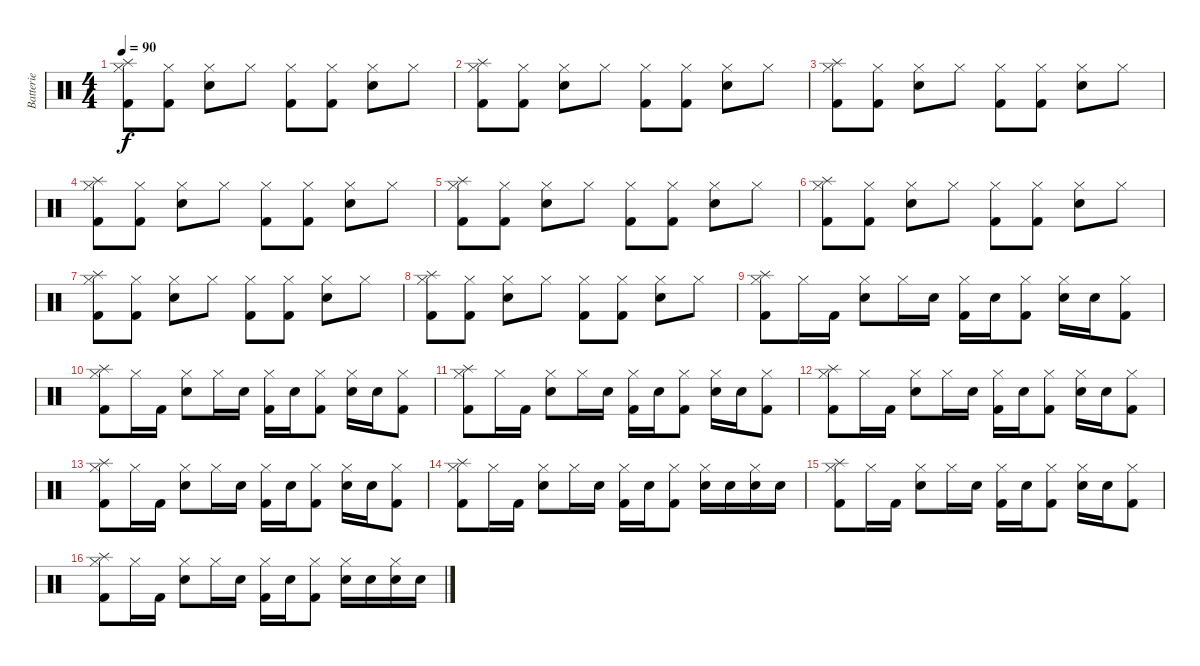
\track ("Batterie" "Batterie") {instrument percussion}
\staff {score}
\articulation defaults
\ts (4 4)
\tempo 90
\clef neutral
\ks c
("Splash (hit)" "Hi-Hat (closed)" "Kick (hit) 2").8{dy f} ("Hi-Hat (closed)" "Kick (hit) 2").8 ("Hi-Hat (closed)" "Snare (hit) 2").8 "Hi-Hat (closed)".8 ("Hi-Hat (closed)" "Kick (hit) 2").8 ("Hi-Hat (closed)" "Kick (hit) 2").8 ("Hi-Hat (closed)" "Snare (hit) 2").8 "Hi-Hat (closed)".8 |
("Splash (hit)" "Hi-Hat (closed)" "Kick (hit) 2").8 ("Hi-Hat (closed)" "Kick (hit) 2").8 ("Hi-Hat (closed)" "Snare (hit) 2").8 "Hi-Hat (closed)".8 ("Hi-Hat (closed)" "Kick (hit) 2").8 ("Hi-Hat (closed)" "Kick (hit) 2").8 ("Hi-Hat (closed)" "Snare (hit) 2").8 "Hi-Hat (closed)".8 |
("Splash (hit)" "Hi-Hat (closed)" "Kick (hit) 2").8 ("Hi-Hat (closed)" "Kick (hit) 2").8 ("Hi-Hat (closed)" "Snare (hit) 2").8 "Hi-Hat (closed)".8 ("Hi-Hat (closed)" "Kick (hit) 2").8 ("Hi-Hat (closed)" "Kick (hit) 2").8 ("Hi-Hat (closed)" "Snare (hit) 2").8 "Hi-Hat (closed)".8 |
("Splash (hit)" "Hi-Hat (closed)" "Kick (hit) 2").8 ("Hi-Hat (closed)" "Kick (hit) 2").8 ("Hi-Hat (closed)" "Snare (hit) 2").8 "Hi-Hat (closed)".8 ("Hi-Hat (closed)" "Kick (hit) 2").8 ("Hi-Hat (closed)" "Kick (hit) 2").8 ("Hi-Hat (closed)" "Snare (hit) 2").8 "Hi-Hat (closed)".8 |
("Splash (hit)" "Hi-Hat (closed)" "Kick (hit) 2").8 ("Hi-Hat (closed)" "Kick (hit) 2").8 ("Hi-Hat (closed)" "Snare (hit) 2").8 "Hi-Hat (closed)".8 ("Hi-Hat (closed)" "Kick (hit) 2").8 ("Hi-Hat (closed)" "Kick (hit) 2").8 ("Hi-Hat (closed)" "Snare (hit) 2").8 "Hi-Hat (closed)".8 |
("Splash (hit)" "Hi-Hat (closed)" "Kick (hit) 2").8 ("Hi-Hat (closed)" "Kick (hit) 2").8 ("Hi-Hat (closed)" "Snare (hit) 2").8 "Hi-Hat (closed)".8 ("Hi-Hat (closed)" "Kick (hit) 2").8 ("Hi-Hat (closed)" "Kick (hit) 2").8 ("Hi-Hat (closed)" "Snare (hit) 2").8 "Hi-Hat (closed)".8 |
("Splash (hit)" "Hi-Hat (closed)" "Kick (hit) 2").8 ("Hi-Hat (closed)" "Kick (hit) 2").8 ("Hi-Hat (closed)" "Snare (hit) 2").8 "Hi-Hat (closed)".8 ("Hi-Hat (closed)" "Kick (hit) 2").8 ("Hi-Hat (closed)" "Kick (hit) 2").8 ("Hi-Hat (closed)" "Snare (hit) 2").8 "Hi-Hat (closed)".8 |
("Splash (hit)" "Hi-Hat (closed)" "Kick (hit) 2").8 ("Hi-Hat (closed)" "Kick (hit) 2").8 ("Hi-Hat (closed)" "Snare (hit) 2").8 "Hi-Hat (closed)".8 ("Hi-Hat (closed)" "Kick (hit) 2").8 ("Hi-Hat (closed)" "Kick (hit) 2").8 ("Hi-Hat (closed)" "Snare (hit) 2").8 "Hi-Hat (closed)".8 |
("Splash (hit)" "Hi-Hat (closed)" "Kick (hit) 2").8 "Hi-Hat (closed)".16 "Kick (hit) 2".16 ("Hi-Hat (closed)" "Snare (hit) 2").8 "Hi-Hat (closed)".16 "Snare (hit) 2".16 ("Hi-Hat (closed)" "Kick (hit) 2").16 "Snare (hit) 2".16 ("Hi-Hat (closed)" "Kick (hit) 2").8 ("Hi-Hat (closed)" "Snare (hit) 2").16 "Snare (hit) 2".16 ("Hi-Hat (closed)" "Kick (hit) 2").8 |
("Splash (hit)" "Hi-Hat (closed)" "Kick (hit) 2").8 "Hi-Hat (closed)".16 "Kick (hit) 2".16 ("Hi-Hat (closed)" "Snare (hit) 2").8 "Hi-Hat (closed)".16 "Snare (hit) 2".16 ("Hi-Hat (closed)" "Kick (hit) 2").16 "Snare (hit) 2".16 ("Hi-Hat (closed)" "Kick (hit) 2").8 ("Hi-Hat (closed)" "Snare (hit) 2").16 "Snare (hit) 2".16 ("Hi-Hat (closed)" "Kick (hit) 2").8 |
("Splash (hit)" "Hi-Hat (closed)" "Kick (hit) 2").8 "Hi-Hat (closed)".16 "Kick (hit) 2".16 ("Hi-Hat (closed)" "Snare (hit) 2").8 "Hi-Hat (closed)".16 "Snare (hit) 2".16 ("Hi-Hat (closed)" "Kick (hit) 2").16 "Snare (hit) 2".16 ("Hi-Hat (closed)" "Kick (hit) 2").8 ("Hi-Hat (closed)" "Snare (hit) 2").16 "Snare (hit) 2".16 ("Hi-Hat (closed)" "Kick (hit) 2").8 |
("Splash (hit)" "Hi-Hat (closed)" "Kick (hit) 2").8 "Hi-Hat (closed)".16 "Kick (hit) 2".16 ("Hi-Hat (closed)" "Snare (hit) 2").8 "Hi-Hat (closed)".16 "Snare (hit) 2".16 ("Hi-Hat (closed)" "Kick (hit) 2").16 "Snare (hit) 2".16 ("Hi-Hat (closed)" "Kick (hit) 2").8 ("Hi-Hat (closed)" "Snare (hit) 2").16 "Snare (hit) 2".16 ("Hi-Hat (closed)" "Kick (hit) 2").8 |
("Splash (hit)" "Hi-Hat (closed)" "Kick (hit) 2").8 "Hi-Hat (closed)".16 "Kick (hit) 2".16 ("Hi-Hat (closed)" "Snare (hit) 2").8 "Hi-Hat (closed)".16 "Snare (hit) 2".16 ("Hi-Hat (closed)" "Kick (hit) 2").16 "Snare (hit) 2".16 ("Hi-Hat (closed)" "Kick (hit) 2").8 ("Hi-Hat (closed)" "Snare (hit) 2").16 "Snare (hit) 2".16 ("Hi-Hat (closed)" "Kick (hit) 2").8 |
("Splash (hit)" "Hi-Hat (closed)" "Kick (hit) 2").8 "Hi-Hat (closed)".16 "Kick (hit) 2".16 ("Hi-Hat (closed)" "Snare (hit) 2").8 "Hi-Hat (closed)".16 "Snare (hit) 2".16 ("Hi-Hat (closed)" "Kick (hit) 2").16 "Snare (hit) 2".16 ("Hi-Hat (closed)" "Kick (hit) 2").8 ("Hi-Hat (closed)" "Snare (hit) 2").16 "Snare (hit) 2".16 ("Hi-Hat (closed)" "Snare (hit) 2").16 "Snare (hit) 2".16 |
("Splash (hit)" "Hi-Hat (closed)" "Kick (hit) 2").8 "Hi-Hat (closed)".16 "Kick (hit) 2".16 ("Hi-Hat (closed)" "Snare (hit) 2").8 "Hi-Hat (closed)".16 "Snare (hit) 2".16 ("Hi-Hat (closed)" "Kick (hit) 2").16 "Snare (hit) 2".16 ("Hi-Hat (closed)" "Kick (hit) 2").8 ("Hi-Hat (closed)" "Snare (hit) 2").16 "Snare (hit) 2".16 ("Hi-Hat (closed)" "Kick (hit) 2").8 |
("Splash (hit)" "Hi-Hat (closed)" "Kick (hit) 2").8 "Hi-Hat (closed)".16 "Kick (hit) 2".16 ("Hi-Hat (closed)" "Snare (hit) 2").8 "Hi-Hat (closed)".16 "Snare (hit) 2".16 ("Hi-Hat (closed)" "Kick (hit) 2").16 "Snare (hit) 2".16 ("Hi-Hat (closed)" "Kick (hit) 2").8 ("Hi-Hat (closed)" "Snare (hit) 2").16 "Snare (hit) 2".16 ("Hi-Hat (closed)" "Snare (hit) 2").16 "Snare (hit) 2".16
